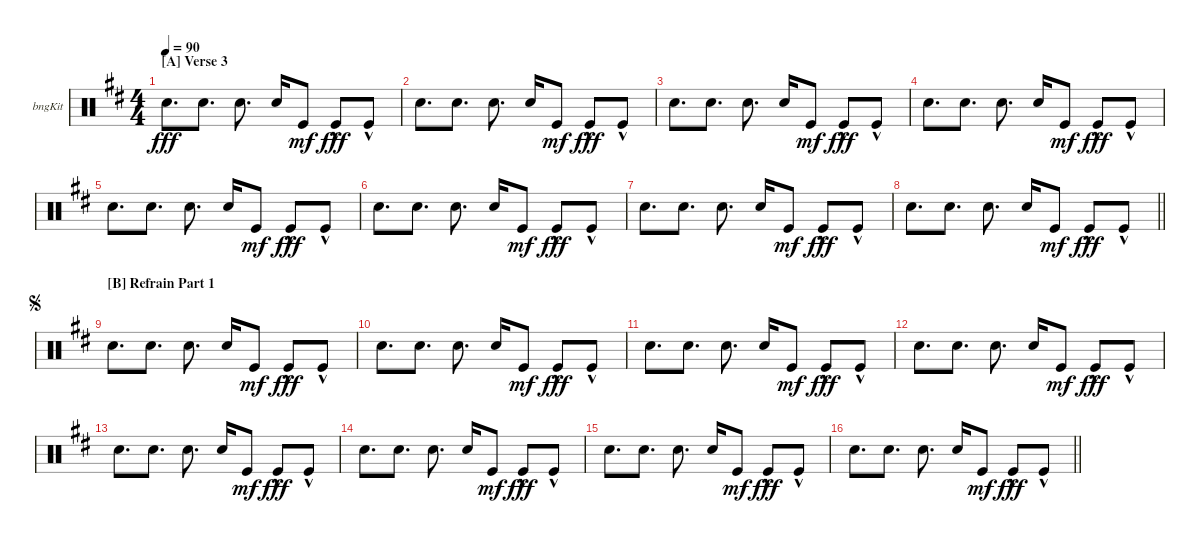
\defaultSystemsLayout 4
\bracketExtendMode groupsimilarinstruments
\firstSystemTrackNameOrientation horizontal
\otherSystemsTrackNameOrientation horizontal
\track ("hi & lo synth drum" "bngKit") {instrument percussion}
\staff {score}
\articulation defaults
\ts (4 4)
\section ("A" "Verse 3")
\tempo 90
\clef neutral
\scale
0.25
\ks d "Snare (hit) 2".8{d dy fff} "Snare (hit) 2".8{d} "Snare (hit) 2".8{d} "Snare (hit) 2".16 "Kick (hit)".8{dy mf} "Kick (hit)"{hac}.8{dy fff} "Kick (hit)"{hac}.8
|
\scale
0.25 "Snare (hit) 2".8{d} "Snare (hit) 2".8{d} "Snare (hit) 2".8{d} "Snare (hit) 2".16 "Kick (hit)".8{dy mf} "Kick (hit)"{hac}.8{dy fff} "Kick (hit)"{hac}.8 |
\scale
0.25 "Snare (hit) 2".8{d} "Snare (hit) 2".8{d} "Snare (hit) 2".8{d} "Snare (hit) 2".16 "Kick (hit)".8{dy mf} "Kick (hit)"{hac}.8{dy fff} "Kick (hit)"{hac}.8 |
\scale
0.25 "Snare (hit) 2".8{d} "Snare (hit) 2".8{d} "Snare (hit) 2".8{d} "Snare (hit) 2".16 "Kick (hit)".8{dy mf} "Kick (hit)"{hac}.8{dy fff} "Kick (hit)"{hac}.8 |
\scale
0.25 "Snare (hit) 2".8{d} "Snare (hit) 2".8{d} "Snare (hit) 2".8{d} "Snare (hit) 2".16 "Kick (hit)".8{dy mf} "Kick (hit)"{hac}.8{dy fff} "Kick (hit)"{hac}.8 |
\scale
0.25 "Snare (hit) 2".8{d} "Snare (hit) 2".8{d} "Snare (hit) 2".8{d} "Snare (hit) 2".16 "Kick (hit)".8{dy mf} "Kick (hit)"{hac}.8{dy fff} "Kick (hit)"{hac}.8 |
\scale
0.25 "Snare (hit) 2".8{d} "Snare (hit) 2".8{d} "Snare (hit) 2".8{d} "Snare (hit) 2".16 "Kick (hit)".8{dy mf} "Kick (hit)"{hac}.8{dy fff} "Kick (hit)"{hac}.8 |
\scale
0.25
\barLineRight lightlight "Snare (hit) 2".8{d} "Snare (hit) 2".8{d} "Snare (hit) 2".8{d} "Snare (hit) 2".16 "Kick (hit)".8{dy mf} "Kick (hit)"{hac}.8{dy fff} "Kick (hit)"{hac}.8
|
\section ("B" "Refrain Part 1")
\jump segno
\scale
0.25 "Snare (hit) 2".8{d} "Snare (hit) 2".8{d} "Snare (hit) 2".8{d} "Snare (hit) 2".16 "Kick (hit)".8{dy mf} "Kick (hit)"{hac}.8{dy fff} "Kick (hit)"{hac}.8 |
\scale
0.25 "Snare (hit) 2".8{d} "Snare (hit) 2".8{d} "Snare (hit) 2".8{d} "Snare (hit) 2".16 "Kick (hit)".8{dy mf} "Kick (hit)"{hac}.8{dy fff} "Kick (hit)"{hac}.8 |
\scale
0.25 "Snare (hit) 2".8{d} "Snare (hit) 2".8{d} "Snare (hit) 2".8{d} "Snare (hit) 2".16 "Kick (hit)".8{dy mf} "Kick (hit)"{hac}.8{dy fff} "Kick (hit)"{hac}.8 |
\scale
0.25 "Snare (hit) 2".8{d} "Snare (hit) 2".8{d} "Snare (hit) 2".8{d} "Snare (hit) 2".16 "Kick (hit)".8{dy mf} "Kick (hit)"{hac}.8{dy fff} "Kick (hit)"{hac}.8 |
\scale
0.25 "Snare (hit) 2".8{d} "Snare (hit) 2".8{d} "Snare (hit) 2".8{d} "Snare (hit) 2".16 "Kick (hit)".8{dy mf} "Kick (hit)"{hac}.8{dy fff} "Kick (hit)"{hac}.8 |
\scale
0.25 "Snare (hit) 2".8{d} "Snare (hit) 2".8{d} "Snare (hit) 2".8{d} "Snare (hit) 2".16 "Kick (hit)".8{dy mf} "Kick (hit)"{hac}.8{dy fff} "Kick (hit)"{hac}.8 |
\scale
0.25 "Snare (hit) 2".8{d} "Snare (hit) 2".8{d} "Snare (hit) 2".8{d} "Snare (hit) 2".16 "Kick (hit)".8{dy mf} "Kick (hit)"{hac}.8{dy fff} "Kick (hit)"{hac}.8 |
\scale
0.25
\barLineRight lightlight "Snare (hit) 2".8{d} "Snare (hit) 2".8{d} "Snare (hit) 2".8{d} "Snare (hit) 2".16 "Kick (hit)".8{dy mf} "Kick (hit)"{hac}.8{dy fff} "Kick (hit)"{hac}.8
